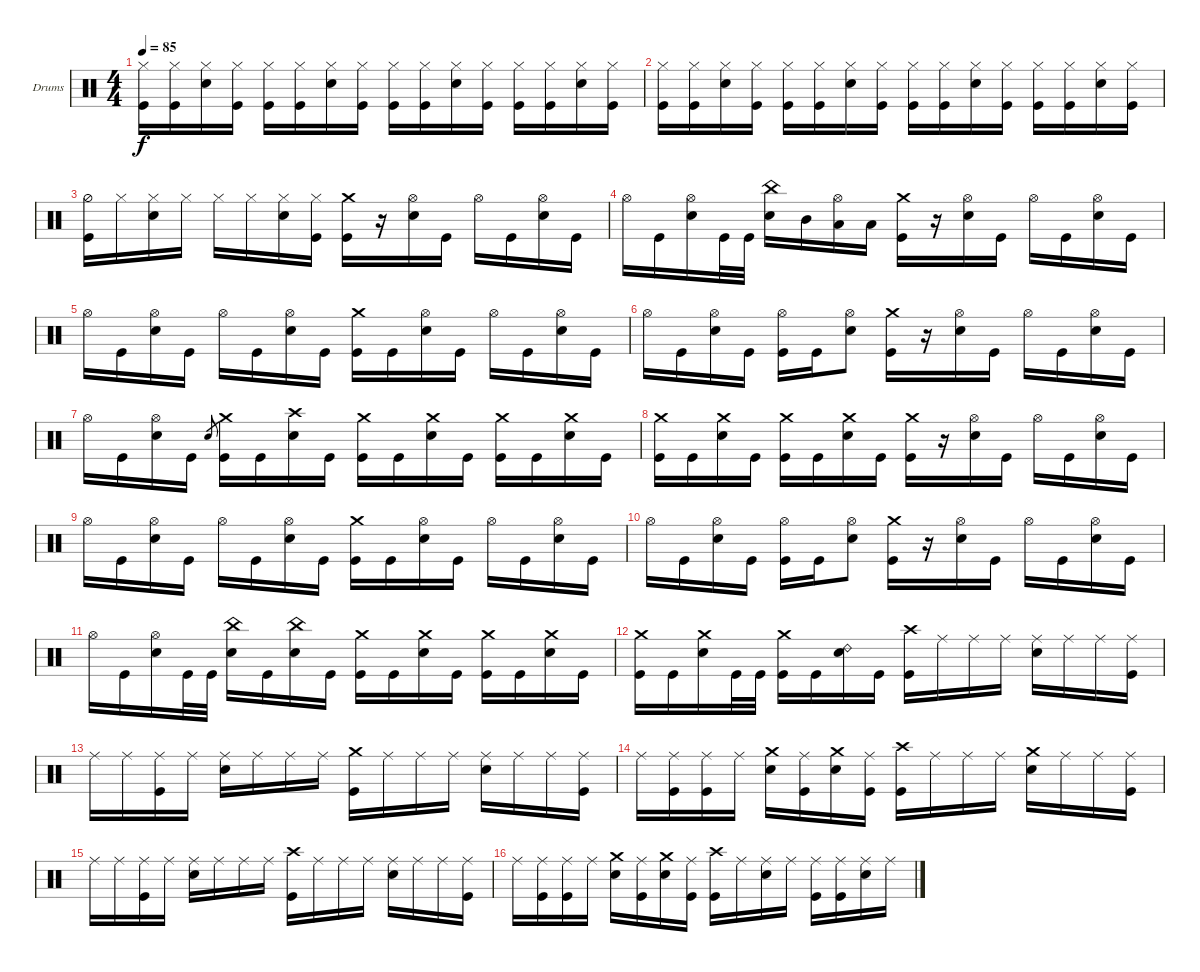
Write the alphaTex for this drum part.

\defaultSystemsLayout 4
\bracketExtendMode groupsimilarinstruments
\firstSystemTrackNameOrientation horizontal
\otherSystemsTrackNameOrientation horizontal
\track ("Drumkit" "Drums") {instrument percussion}
\staff {score}
\articulation defaults
\ts (4 4)
\tempo 85
\clef neutral
\ks c
("Kick (hit)" "Hi-Hat (closed)").16{dy f} ("Kick (hit)" "Hi-Hat (closed)").16 ("Snare (hit) 2" "Hi-Hat (closed)").16 ("Kick (hit)" "Hi-Hat (closed)").16 ("Kick (hit)" "Hi-Hat (closed)").16 ("Kick (hit)" "Hi-Hat (closed)").16 ("Snare (hit) 2" "Hi-Hat (closed)").16 ("Kick (hit)" "Hi-Hat (closed)").16 ("Kick (hit)" "Hi-Hat (closed)").16 ("Kick (hit)" "Hi-Hat (closed)").16 ("Snare (hit) 2" "Hi-Hat (closed)").16 ("Kick (hit)" "Hi-Hat (closed)").16 ("Kick (hit)" "Hi-Hat (closed)").16 ("Kick (hit)" "Hi-Hat (closed)").16 ("Snare (hit) 2" "Hi-Hat (closed)").16 ("Kick (hit)" "Hi-Hat (closed)").16 |
("Kick (hit)" "Hi-Hat (closed)").16 ("Kick (hit)" "Hi-Hat (closed)").16 ("Snare (hit) 2" "Hi-Hat (closed)").16 ("Kick (hit)" "Hi-Hat (closed)").16 ("Kick (hit)" "Hi-Hat (closed)").16 ("Kick (hit)" "Hi-Hat (closed)").16 ("Snare (hit) 2" "Hi-Hat (closed)").16 ("Kick (hit)" "Hi-Hat (closed)").16 ("Kick (hit)" "Hi-Hat (closed)").16 ("Kick (hit)" "Hi-Hat (closed)").16 ("Snare (hit) 2" "Hi-Hat (closed)").16 ("Kick (hit)" "Hi-Hat (closed)").16 ("Kick (hit)" "Hi-Hat (closed)").16 ("Kick (hit)" "Hi-Hat (closed)").16 ("Snare (hit) 2" "Hi-Hat (closed)").16 ("Kick (hit)" "Hi-Hat (closed)").16 |
("Kick (hit)" "Hi-Hat (half)").16 "Hi-Hat (closed)".16 ("Snare (hit) 2" "Hi-Hat (closed)").16 "Hi-Hat (closed)".16 "Hi-Hat (closed)".16 "Hi-Hat (closed)".16 ("Snare (hit) 2" "Hi-Hat (closed)").16 ("Kick (hit)" "Hi-Hat (closed)").16 ("Kick (hit)" "Crash medium (hit)").16 r.16 ("Snare (hit) 2" "Hi-Hat (open)").16 "Kick (hit)".16 "Hi-Hat (open)".16 "Kick (hit)".16 ("Snare (hit) 2" "Hi-Hat (open)").16 "Kick (hit)".16 |
"Hi-Hat (open)".16 "Kick (hit)".16 ("Snare (hit) 2" "Hi-Hat (open)").16 "Kick (hit)".32 "Kick (hit)".32 ("Snare (hit) 2" "China (hit)").16 "Mid Tom (hit)".16 ("Low Tom (hit)" "Hi-Hat (open)").16 "Low Tom (hit)".16 ("Kick (hit)" "Crash medium (hit)").16 r.16 ("Snare (hit) 2" "Hi-Hat (open)").16 "Kick (hit)".16 "Hi-Hat (open)".16 "Kick (hit)".16 ("Snare (hit) 2" "Hi-Hat (open)").16 "Kick (hit)".16 |
"Hi-Hat (open)".16 "Kick (hit)".16 ("Snare (hit) 2" "Hi-Hat (open)").16 "Kick (hit)".16 "Hi-Hat (open)".16 "Kick (hit)".16 ("Snare (hit) 2" "Hi-Hat (open)").16 "Kick (hit)".16 ("Kick (hit)" "Crash medium (hit)").16 "Kick (hit)".16 ("Snare (hit) 2" "Hi-Hat (open)").16 "Kick (hit)".16 "Hi-Hat (open)".16 "Kick (hit)".16 ("Snare (hit) 2" "Hi-Hat (open)").16 "Kick (hit)".16 |
"Hi-Hat (open)".16 "Kick (hit)".16 ("Snare (hit) 2" "Hi-Hat (open)").16 "Kick (hit)".16 ("Hi-Hat (open)" "Kick (hit)").16 "Kick (hit)".16 ("Snare (hit) 2" "Hi-Hat (open)").8 ("Kick (hit)" "Crash medium (hit)").16 r.16 ("Snare (hit) 2" "Hi-Hat (open)").16 "Kick (hit)".16 "Hi-Hat (open)".16 "Kick (hit)".16 ("Snare (hit) 2" "Hi-Hat (open)").16 "Kick (hit)".16 |
"Hi-Hat (open)".16 "Kick (hit)".16 ("Snare (hit) 2" "Hi-Hat (open)").16 "Kick (hit)".16 "Snare (hit) 2".8{gr} ("Kick (hit)" "Crash medium (hit)").16 "Kick (hit)".16 ("Snare (hit) 2" "Crash high (hit)").16 "Kick (hit)".16 ("Kick (hit)" "Crash medium (hit)").16 "Kick (hit)".16 ("Snare (hit) 2" "Crash medium (hit)").16 "Kick (hit)".16 ("Kick (hit)" "Crash medium (hit)").16 "Kick (hit)".16 ("Snare (hit) 2" "Crash medium (hit)").16 "Kick (hit)".16 |
("Kick (hit)" "Crash medium (hit)").16 "Kick (hit)".16 ("Snare (hit) 2" "Crash medium (hit)").16 "Kick (hit)".16 ("Kick (hit)" "Crash medium (hit)").16 "Kick (hit)".16 ("Snare (hit) 2" "Crash medium (hit)").16 "Kick (hit)".16 ("Kick (hit)" "Crash medium (hit)").16 r.16 ("Snare (hit) 2" "Hi-Hat (open)").16 "Kick (hit)".16 "Hi-Hat (open)".16 "Kick (hit)".16 ("Snare (hit) 2" "Hi-Hat (open)").16 "Kick (hit)".16 |
"Hi-Hat (open)".16 "Kick (hit)".16 ("Snare (hit) 2" "Hi-Hat (open)").16 "Kick (hit)".16 "Hi-Hat (open)".16 "Kick (hit)".16 ("Snare (hit) 2" "Hi-Hat (open)").16 "Kick (hit)".16 ("Kick (hit)" "Crash medium (hit)").16 "Kick (hit)".16 ("Snare (hit) 2" "Hi-Hat (open)").16 "Kick (hit)".16 "Hi-Hat (open)".16 "Kick (hit)".16 ("Snare (hit) 2" "Hi-Hat (open)").16 "Kick (hit)".16 |
"Hi-Hat (open)".16 "Kick (hit)".16 ("Snare (hit) 2" "Hi-Hat (open)").16 "Kick (hit)".16 ("Hi-Hat (open)" "Kick (hit)").16 "Kick (hit)".16 ("Snare (hit) 2" "Hi-Hat (open)").8 ("Kick (hit)" "Crash medium (hit)").16 r.16 ("Snare (hit) 2" "Hi-Hat (open)").16 "Kick (hit)".16 "Hi-Hat (open)".16 "Kick (hit)".16 ("Snare (hit) 2" "Hi-Hat (open)").16 "Kick (hit)".16 |
"Hi-Hat (open)".16 "Kick (hit)".16 ("Snare (hit) 2" "Hi-Hat (open)").16 "Kick (hit)".32 "Kick (hit)".32 ("Snare (hit) 2" "China (hit)").16 "Kick (hit)".16 ("Snare (hit) 2" "China (hit)").16 "Kick (hit)".16 ("Kick (hit)" "Crash medium (hit)").16 "Kick (hit)".16 ("Snare (hit) 2" "Crash medium (hit)").16 "Kick (hit)".16 ("Kick (hit)" "Crash medium (hit)").16 "Kick (hit)".16 ("Snare (hit) 2" "Crash medium (hit)").16 "Kick (hit)".16 |
("Kick (hit)" "Crash medium (hit)").16 "Kick (hit)".16 ("Snare (hit) 2" "Crash medium (hit)").16 "Kick (hit)".32 "Kick (hit)".32 ("Crash medium (hit)" "Kick (hit)").16 "Kick (hit)".16 ("Snare (hit) 2" "Ride (bell) 2").16 "Kick (hit)".16 ("Kick (hit)" "Crash high (hit)").16 "Ride (middle)".16 "Ride (middle)".16 "Ride (middle)".16 ("Ride (middle)" "Snare (hit) 2").16 "Ride (middle)".16 "Ride (middle)".16 ("Ride (middle)" "Kick (hit)").16 |
"Ride (middle)".16 "Ride (middle)".16 ("Ride (middle)" "Kick (hit)").16 "Ride (middle)".16 ("Ride (middle)" "Snare (hit) 2").16 "Ride (middle)".16 "Ride (middle)".16 "Ride (middle)".16 ("Crash medium (hit)" "Kick (hit)").16 "Ride (middle)".16 "Ride (middle)".16 "Ride (middle)".16 ("Ride (middle)" "Snare (hit) 2").16 "Ride (middle)".16 "Ride (middle)".16 ("Ride (middle)" "Kick (hit)").16 |
"Ride (middle)".16 ("Ride (middle)" "Kick (hit)").16 ("Ride (middle)" "Kick (hit)").16 "Ride (middle)".16 ("Snare (hit) 2" "Crash medium (hit)").16 ("Ride (middle)" "Kick (hit)").16 ("Snare (hit) 2" "Crash medium (hit)").16 ("Ride (middle)" "Kick (hit)").16 ("Kick (hit)" "Crash high (hit)").16 "Ride (middle)".16 "Ride (middle)".16 "Ride (middle)".16 ("Snare (hit) 2" "Crash medium (hit)").16 "Ride (middle)".16 "Ride (middle)".16 ("Ride (middle)" "Kick (hit)").16 |
"Ride (middle)".16 "Ride (middle)".16 ("Ride (middle)" "Kick (hit)").16 "Ride (middle)".16 ("Ride (middle)" "Snare (hit) 2").16 "Ride (middle)".16 "Ride (middle)".16 "Ride (middle)".16 ("Kick (hit)" "Crash high (hit)").16 "Ride (middle)".16 "Ride (middle)".16 "Ride (middle)".16 ("Ride (middle)" "Snare (hit) 2").16 "Ride (middle)".16 "Ride (middle)".16 ("Ride (middle)" "Kick (hit)").16 |
"Ride (middle)".16 ("Ride (middle)" "Kick (hit)").16 ("Ride (middle)" "Kick (hit)").16 "Ride (middle)".16 ("Snare (hit) 2" "Crash medium (hit)").16 ("Ride (middle)" "Kick (hit)").16 ("Snare (hit) 2" "Crash medium (hit)").16 ("Ride (middle)" "Kick (hit)").16 ("Kick (hit)" "Crash high (hit)").16 "Ride (middle)".16 ("Ride (middle)" "Snare (hit) 2").16 "Ride (middle)".16 ("Ride (middle)" "Kick (hit)").16 ("Ride (middle)" "Kick (hit)").16 ("Ride (middle)" "Snare (hit) 2").16 "Ride (middle)".16
